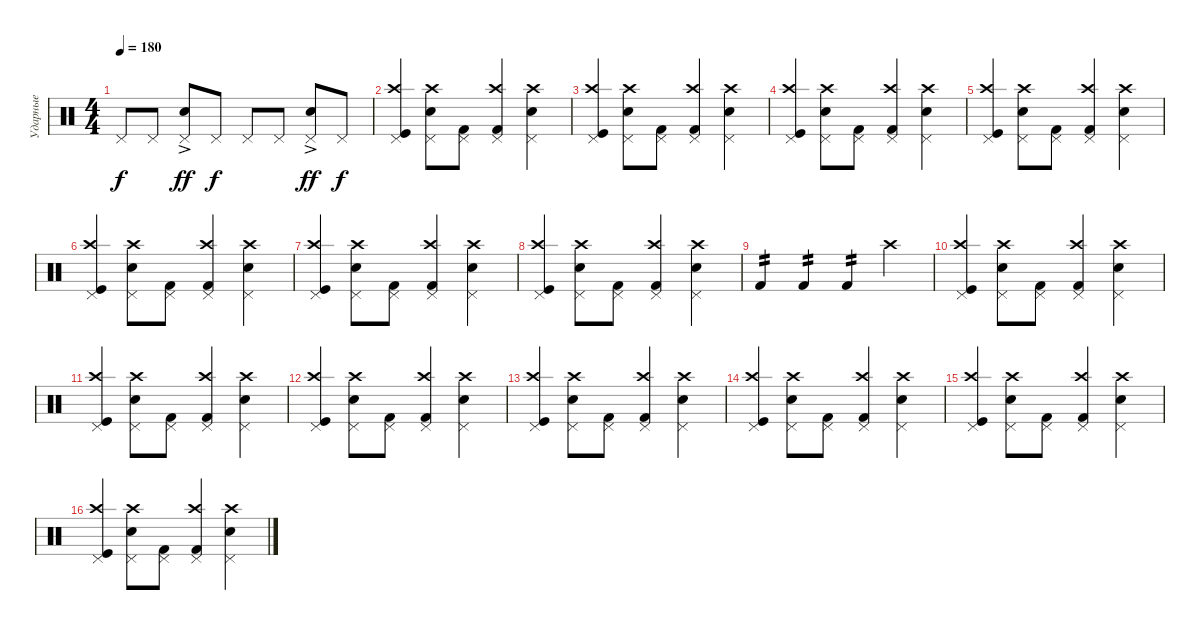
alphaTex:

\track ("Ударные" "Ударные") {instrument percussion}
\staff {score}
\articulation defaults
\ts (4 4)
\tempo 180
\clef neutral
\ks c "Pedal Hi-Hat (hit)".8{dy f} "Pedal Hi-Hat (hit)".8
("Pedal Hi-Hat (hit)"{ac} "Electric Snare (hit)").8{dy ff} "Pedal Hi-Hat (hit)".8{dy f} "Pedal Hi-Hat (hit)".8 "Pedal Hi-Hat (hit)".8 ("Pedal Hi-Hat (hit)"{ac} "Electric Snare (hit)").8{dy ff} "Pedal Hi-Hat (hit)".8{dy f} |
("Crash high (hit)" "Pedal Hi-Hat (hit)" "Kick (hit)").4 ("Crash high (hit)" "Pedal Hi-Hat (hit)" "Electric Snare (hit)").8 ("Pedal Hi-Hat (hit)" "Kick (hit) 2").8 ("Crash high (hit)" "Pedal Hi-Hat (hit)" "Kick (hit) 2").4 ("Crash high (hit)" "Pedal Hi-Hat (hit)" "Electric Snare (hit)").4 |
("Crash high (hit)" "Pedal Hi-Hat (hit)" "Kick (hit)").4 ("Crash high (hit)" "Pedal Hi-Hat (hit)" "Electric Snare (hit)").8 ("Pedal Hi-Hat (hit)" "Kick (hit) 2").8 ("Crash high (hit)" "Pedal Hi-Hat (hit)" "Kick (hit) 2").4 ("Crash high (hit)" "Pedal Hi-Hat (hit)" "Electric Snare (hit)").4 |
("Crash high (hit)" "Pedal Hi-Hat (hit)" "Kick (hit)").4 ("Crash high (hit)" "Pedal Hi-Hat (hit)" "Electric Snare (hit)").8 ("Pedal Hi-Hat (hit)" "Kick (hit) 2").8 ("Crash high (hit)" "Pedal Hi-Hat (hit)" "Kick (hit) 2").4 ("Crash high (hit)" "Pedal Hi-Hat (hit)" "Electric Snare (hit)").4 |
("Crash high (hit)" "Pedal Hi-Hat (hit)" "Kick (hit)").4 ("Crash high (hit)" "Pedal Hi-Hat (hit)" "Electric Snare (hit)").8 ("Pedal Hi-Hat (hit)" "Kick (hit) 2").8 ("Crash high (hit)" "Pedal Hi-Hat (hit)" "Kick (hit) 2").4 ("Crash high (hit)" "Pedal Hi-Hat (hit)" "Electric Snare (hit)").4 |
("Crash high (hit)" "Pedal Hi-Hat (hit)" "Kick (hit)").4 ("Crash high (hit)" "Pedal Hi-Hat (hit)" "Electric Snare (hit)").8 ("Pedal Hi-Hat (hit)" "Kick (hit) 2").8 ("Crash high (hit)" "Pedal Hi-Hat (hit)" "Kick (hit) 2").4 ("Crash high (hit)" "Pedal Hi-Hat (hit)" "Electric Snare (hit)").4 |
("Crash high (hit)" "Pedal Hi-Hat (hit)" "Kick (hit)").4 ("Crash high (hit)" "Pedal Hi-Hat (hit)" "Electric Snare (hit)").8 ("Pedal Hi-Hat (hit)" "Kick (hit) 2").8 ("Crash high (hit)" "Pedal Hi-Hat (hit)" "Kick (hit) 2").4 ("Crash high (hit)" "Pedal Hi-Hat (hit)" "Electric Snare (hit)").4 |
("Crash high (hit)" "Pedal Hi-Hat (hit)" "Kick (hit)").4 ("Crash high (hit)" "Pedal Hi-Hat (hit)" "Electric Snare (hit)").8 ("Pedal Hi-Hat (hit)" "Kick (hit) 2").8 ("Crash high (hit)" "Pedal Hi-Hat (hit)" "Kick (hit) 2").4 ("Crash high (hit)" "Pedal Hi-Hat (hit)" "Electric Snare (hit)").4 |
"Kick (hit) 2".4{tp 2} "Kick (hit) 2".4{tp 2} "Kick (hit) 2".4{tp 2} "Crash high (hit)".4 |
("Crash high (hit)" "Pedal Hi-Hat (hit)" "Kick (hit)").4 ("Crash high (hit)" "Pedal Hi-Hat (hit)" "Electric Snare (hit)").8 ("Pedal Hi-Hat (hit)" "Kick (hit) 2").8 ("Crash high (hit)" "Pedal Hi-Hat (hit)" "Kick (hit) 2").4 ("Crash high (hit)" "Pedal Hi-Hat (hit)" "Electric Snare (hit)").4 |
("Crash high (hit)" "Pedal Hi-Hat (hit)" "Kick (hit)").4 ("Crash high (hit)" "Pedal Hi-Hat (hit)" "Electric Snare (hit)").8 ("Pedal Hi-Hat (hit)" "Kick (hit) 2").8 ("Crash high (hit)" "Pedal Hi-Hat (hit)" "Kick (hit) 2").4 ("Crash high (hit)" "Pedal Hi-Hat (hit)" "Electric Snare (hit)").4 |
("Crash high (hit)" "Pedal Hi-Hat (hit)" "Kick (hit)").4 ("Crash high (hit)" "Pedal Hi-Hat (hit)" "Electric Snare (hit)").8 ("Pedal Hi-Hat (hit)" "Kick (hit) 2").8 ("Crash high (hit)" "Pedal Hi-Hat (hit)" "Kick (hit) 2").4 ("Crash high (hit)" "Pedal Hi-Hat (hit)" "Electric Snare (hit)").4 |
("Crash high (hit)" "Pedal Hi-Hat (hit)" "Kick (hit)").4 ("Crash high (hit)" "Pedal Hi-Hat (hit)" "Electric Snare (hit)").8 ("Pedal Hi-Hat (hit)" "Kick (hit) 2").8 ("Crash high (hit)" "Pedal Hi-Hat (hit)" "Kick (hit) 2").4 ("Crash high (hit)" "Pedal Hi-Hat (hit)" "Electric Snare (hit)").4 |
("Crash high (hit)" "Pedal Hi-Hat (hit)" "Kick (hit)").4 ("Crash high (hit)" "Pedal Hi-Hat (hit)" "Electric Snare (hit)").8 ("Pedal Hi-Hat (hit)" "Kick (hit) 2").8 ("Crash high (hit)" "Pedal Hi-Hat (hit)" "Kick (hit) 2").4 ("Crash high (hit)" "Pedal Hi-Hat (hit)" "Electric Snare (hit)").4 |
("Crash high (hit)" "Pedal Hi-Hat (hit)" "Kick (hit)").4 ("Crash high (hit)" "Pedal Hi-Hat (hit)" "Electric Snare (hit)").8 ("Pedal Hi-Hat (hit)" "Kick (hit) 2").8 ("Crash high (hit)" "Pedal Hi-Hat (hit)" "Kick (hit) 2").4 ("Crash high (hit)" "Pedal Hi-Hat (hit)" "Electric Snare (hit)").4 |
("Crash high (hit)" "Pedal Hi-Hat (hit)" "Kick (hit)").4 ("Crash high (hit)" "Pedal Hi-Hat (hit)" "Electric Snare (hit)").8 ("Pedal Hi-Hat (hit)" "Kick (hit) 2").8 ("Crash high (hit)" "Pedal Hi-Hat (hit)" "Kick (hit) 2").4 ("Crash high (hit)" "Pedal Hi-Hat (hit)" "Electric Snare (hit)").4
